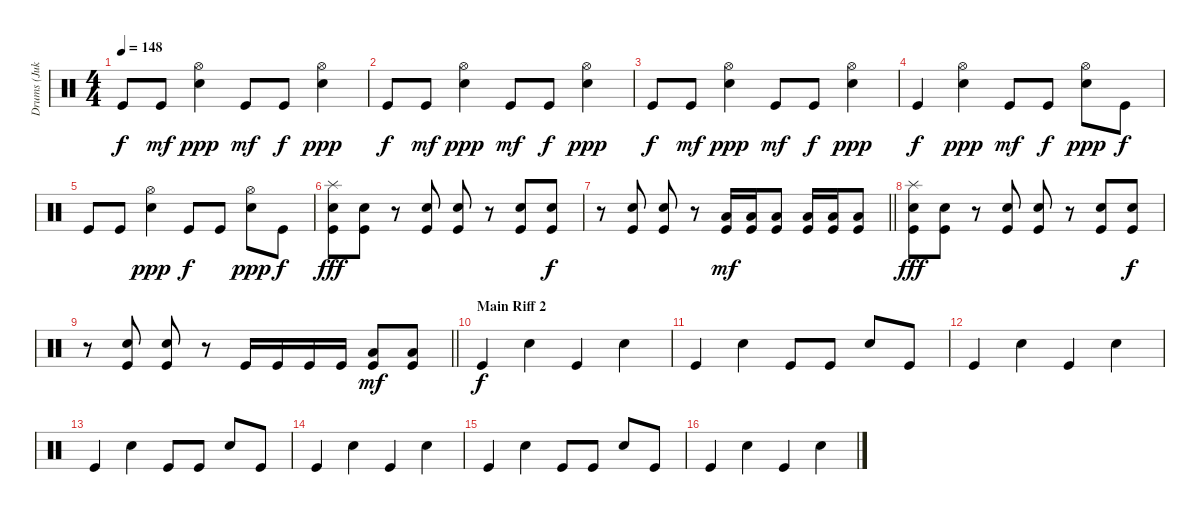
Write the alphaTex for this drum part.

\track ("Drums (Jukka)" "Drums (Juk") {instrument percussion}
\staff {score}
\articulation defaults
\ts (4 4)
\tempo 148
\clef neutral
\ks c "Kick (hit)".8{dy f} "Kick (hit)".8{dy mf}
("Snare (hit) 2" "Hi-Hat (open)").4{dy ppp} "Kick (hit)".8{dy mf} "Kick (hit)".8{dy f} ("Snare (hit) 2" "Hi-Hat (open)").4{dy ppp} |
"Kick (hit)".8{dy f} "Kick (hit)".8{dy mf} ("Snare (hit) 2" "Hi-Hat (open)").4{dy ppp} "Kick (hit)".8{dy mf} "Kick (hit)".8{dy f} ("Snare (hit) 2" "Hi-Hat (open)").4{dy ppp} |
"Kick (hit)".8{dy f} "Kick (hit)".8{dy mf} ("Snare (hit) 2" "Hi-Hat (open)").4{dy ppp} "Kick (hit)".8{dy mf} "Kick (hit)".8{dy f} ("Snare (hit) 2" "Hi-Hat (open)").4{dy ppp} |
"Kick (hit)".4{dy f} ("Snare (hit) 2" "Hi-Hat (open)").4{dy ppp} "Kick (hit)".8{dy mf} "Kick (hit)".8{dy f} ("Snare (hit) 2" "Hi-Hat (open)").8{dy ppp} "Kick (hit)".8{dy f} |
"Kick (hit)".8 "Kick (hit)".8 ("Snare (hit) 2" "Hi-Hat (open)").4{dy ppp} "Kick (hit)".8{dy f} "Kick (hit)".8 ("Snare (hit) 2" "Hi-Hat (open)").8{dy ppp} "Kick (hit)".8{dy f} |
("Kick (hit)" "Snare (hit) 2" "Splash (hit)").8{dy fff} ("Kick (hit)" "Snare (hit) 2").8 r.8 ("Kick (hit)" "Snare (hit) 2").8 ("Kick (hit)" "Snare (hit) 2").8 r.8 ("Kick (hit)" "Snare (hit) 2").8 ("Kick (hit)" "Snare (hit) 2").8{dy f} |
\barLineRight lightlight
r.8 ("Kick (hit)" "Snare (hit) 2").8 ("Kick (hit)" "Snare (hit) 2").8 r.8 ("Kick (hit)" "Low Floor Tom (hit)").16{dy mf} ("Kick (hit)" "Low Floor Tom (hit)").16 ("Kick (hit)" "Low Floor Tom (hit)").8 ("Kick (hit)" "Low Floor Tom (hit)").16 ("Kick (hit)" "Low Floor Tom (hit)").16 ("Kick (hit)" "Low Floor Tom (hit)").8 |
("Kick (hit)" "Snare (hit) 2" "Splash (hit)").8{dy fff} ("Kick (hit)" "Snare (hit) 2").8 r.8 ("Kick (hit)" "Snare (hit) 2").8 ("Kick (hit)" "Snare (hit) 2").8 r.8 ("Kick (hit)" "Snare (hit) 2").8 ("Kick (hit)" "Snare (hit) 2").8{dy f} |
\barLineRight lightlight
r.8 ("Kick (hit)" "Snare (hit) 2").8 ("Kick (hit)" "Snare (hit) 2").8 r.8 "Kick (hit)".16 "Kick (hit)".16 "Kick (hit)".16 "Kick (hit)".16 ("Kick (hit)" "Low Floor Tom (hit)").8{dy mf} ("Kick (hit)" "Low Floor Tom (hit)").8 |
\section ("" "Main Riff 2")
"Kick (hit)".4{dy f} "Snare (hit) 2".4 "Kick (hit)".4 "Snare (hit) 2".4 |
"Kick (hit)".4 "Snare (hit) 2".4 "Kick (hit)".8 "Kick (hit)".8 "Snare (hit) 2".8 "Kick (hit)".8 |
"Kick (hit)".4 "Snare (hit) 2".4 "Kick (hit)".4 "Snare (hit) 2".4 |
"Kick (hit)".4 "Snare (hit) 2".4 "Kick (hit)".8 "Kick (hit)".8 "Snare (hit) 2".8 "Kick (hit)".8 |
"Kick (hit)".4 "Snare (hit) 2".4 "Kick (hit)".4 "Snare (hit) 2".4 |
"Kick (hit)".4 "Snare (hit) 2".4 "Kick (hit)".8 "Kick (hit)".8 "Snare (hit) 2".8 "Kick (hit)".8 |
"Kick (hit)".4 "Snare (hit) 2".4 "Kick (hit)".4 "Snare (hit) 2".4
